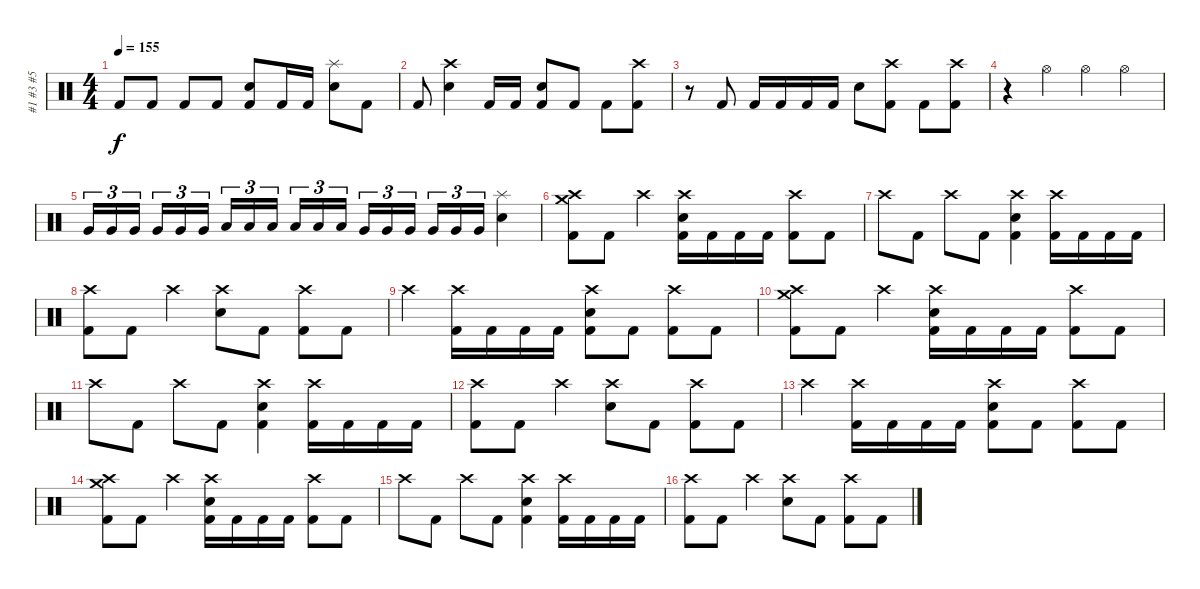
\track ("#1 #3 #5" "#1 #3 #5") {instrument percussion}
\staff {score}
\articulation defaults
\ts (4 4)
\tempo 155
\clef neutral
\ks c "Kick (hit) 2".8{dy f} "Kick (hit) 2".8 "Kick (hit) 2".8 "Kick (hit) 2".8
("Electric Snare (hit)" "Kick (hit) 2").8 "Kick (hit) 2".16 "Kick (hit) 2".16 ("Splash (hit)" "Electric Snare (hit)").8 "Kick (hit) 2".8 |
"Kick (hit) 2".8 ("Crash high (hit)" "Electric Snare (hit)").4 "Kick (hit) 2".16 "Kick (hit) 2".16 ("Electric Snare (hit)" "Kick (hit) 2").8 "Kick (hit) 2".8 "Kick (hit) 2".8 ("Crash high (hit)" "Kick (hit) 2").8 |
r.8 "Kick (hit) 2".8 "Kick (hit) 2".16 "Kick (hit) 2".16 "Kick (hit) 2".16 "Kick (hit) 2".16 "Electric Snare (hit)".8 ("Crash high (hit)" "Kick (hit) 2").8 "Kick (hit) 2".8 ("Crash high (hit)" "Kick (hit) 2").8 |
r.4 "Hi-Hat (open)".4 "Hi-Hat (open)".4 "Hi-Hat (open)".4 |
"Very Low Tom (hit)".16{tu (3 2)} "Very Low Tom (hit)".16{tu (3 2)} "Very Low Tom (hit)".16{tu (3 2)} "Very Low Tom (hit)".16{tu (3 2)} "Very Low Tom (hit)".16{tu (3 2)} "Very Low Tom (hit)".16{tu (3 2)} "Low Tom (hit)".16{tu (3 2)} "Low Tom (hit)".16{tu (3 2)} "Low Tom (hit)".16{tu (3 2)} "Low Tom (hit)".16{tu (3 2)} "Low Tom (hit)".16{tu (3 2)} "Low Tom (hit)".16{tu (3 2)} "Very Low Tom (hit)".16{tu (3 2)} "Very Low Tom (hit)".16{tu (3 2)} "Very Low Tom (hit)".16{tu (3 2)} "Very Low Tom (hit)".16{tu (3 2)} "Very Low Tom (hit)".16{tu (3 2)} "Very Low Tom (hit)".16{tu (3 2)} ("Splash (hit)" "Electric Snare (hit)").4 |
\section ("" " ")
("Crash medium (hit)" "Crash high (hit)" "Kick (hit) 2").8 "Kick (hit) 2".8 "Crash high (hit)".4 ("Crash high (hit)" "Electric Snare (hit)" "Kick (hit) 2").16 "Kick (hit) 2".16 "Kick (hit) 2".16 "Kick (hit) 2".16 ("Crash high (hit)" "Kick (hit) 2").8 "Kick (hit) 2".8 |
"Crash high (hit)".8 "Kick (hit) 2".8 "Crash high (hit)".8 "Kick (hit) 2".8 ("Crash high (hit)" "Electric Snare (hit)" "Kick (hit) 2").4 ("Crash high (hit)" "Kick (hit) 2").16 "Kick (hit) 2".16 "Kick (hit) 2".16 "Kick (hit) 2".16 |
("Crash high (hit)" "Kick (hit) 2").8 "Kick (hit) 2".8 "Crash high (hit)".4 ("Crash high (hit)" "Electric Snare (hit)").8 "Kick (hit) 2".8 ("Crash high (hit)" "Kick (hit) 2").8 "Kick (hit) 2".8 |
"Crash high (hit)".4 ("Crash high (hit)" "Kick (hit) 2").16 "Kick (hit) 2".16 "Kick (hit) 2".16 "Kick (hit) 2".16 ("Crash high (hit)" "Electric Snare (hit)" "Kick (hit) 2").8 "Kick (hit) 2".8 ("Crash high (hit)" "Kick (hit) 2").8 "Kick (hit) 2".8 |
("Crash medium (hit)" "Crash high (hit)" "Kick (hit) 2").8 "Kick (hit) 2".8 "Crash high (hit)".4 ("Crash high (hit)" "Electric Snare (hit)" "Kick (hit) 2").16 "Kick (hit) 2".16 "Kick (hit) 2".16 "Kick (hit) 2".16 ("Crash high (hit)" "Kick (hit) 2").8 "Kick (hit) 2".8 |
"Crash high (hit)".8 "Kick (hit) 2".8 "Crash high (hit)".8 "Kick (hit) 2".8 ("Crash high (hit)" "Electric Snare (hit)" "Kick (hit) 2").4 ("Crash high (hit)" "Kick (hit) 2").16 "Kick (hit) 2".16 "Kick (hit) 2".16 "Kick (hit) 2".16 |
("Crash high (hit)" "Kick (hit) 2").8 "Kick (hit) 2".8 "Crash high (hit)".4 ("Crash high (hit)" "Electric Snare (hit)").8 "Kick (hit) 2".8 ("Crash high (hit)" "Kick (hit) 2").8 "Kick (hit) 2".8 |
"Crash high (hit)".4 ("Crash high (hit)" "Kick (hit) 2").16 "Kick (hit) 2".16 "Kick (hit) 2".16 "Kick (hit) 2".16 ("Crash high (hit)" "Electric Snare (hit)" "Kick (hit) 2").8 "Kick (hit) 2".8 ("Crash high (hit)" "Kick (hit) 2").8 "Kick (hit) 2".8 |
("Crash medium (hit)" "Crash high (hit)" "Kick (hit) 2").8 "Kick (hit) 2".8 "Crash high (hit)".4 ("Crash high (hit)" "Electric Snare (hit)" "Kick (hit) 2").16 "Kick (hit) 2".16 "Kick (hit) 2".16 "Kick (hit) 2".16 ("Crash high (hit)" "Kick (hit) 2").8 "Kick (hit) 2".8 |
"Crash high (hit)".8 "Kick (hit) 2".8 "Crash high (hit)".8 "Kick (hit) 2".8 ("Crash high (hit)" "Electric Snare (hit)" "Kick (hit) 2").4 ("Crash high (hit)" "Kick (hit) 2").16 "Kick (hit) 2".16 "Kick (hit) 2".16 "Kick (hit) 2".16 |
("Crash high (hit)" "Kick (hit) 2").8 "Kick (hit) 2".8 "Crash high (hit)".4 ("Crash high (hit)" "Electric Snare (hit)").8 "Kick (hit) 2".8 ("Crash high (hit)" "Kick (hit) 2").8 "Kick (hit) 2".8
